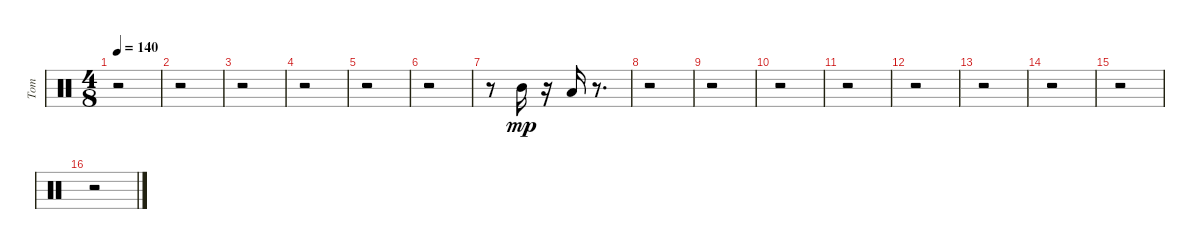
\track ("Tom" "Tom") {instrument percussion}
\staff {score}
\articulation defaults
\ts (4 8)
\tempo 140
\clef neutral
\ks c
r.2{dy mp} |
r.2 |
r.2 |
r.2 |
r.2 |
r.2 |
r.8 "Mid Tom (hit)".16 r.16 "Low Tom (hit)".16 r.8{d} |
r.2 |
r.2 |
r.2 |
r.2 |
r.2 |
r.2 |
r.2 |
r.2 |
r.2
